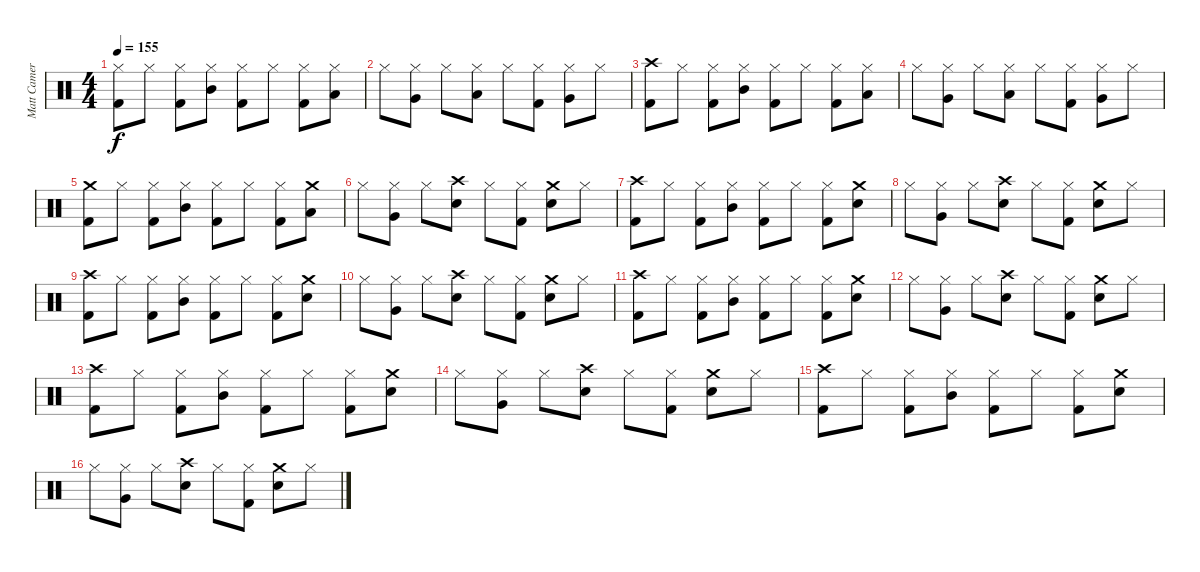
\track ("Matt Cameron" "Matt Camer") {instrument percussion}
\staff {score}
\articulation defaults
\ts (4 4)
\tempo 155
\clef neutral
\ks c
("Hi-Hat (closed)" "Kick (hit) 2").8{dy f} "Hi-Hat (closed)".8 ("Hi-Hat (closed)" "Kick (hit) 2").8 ("Hi-Hat (closed)" "Mid Tom (hit)").8 ("Hi-Hat (closed)" "Kick (hit) 2").8 "Hi-Hat (closed)".8 ("Hi-Hat (closed)" "Kick (hit) 2").8 ("Hi-Hat (closed)" "Low Tom (hit)").8 |
"Hi-Hat (closed)".8 ("Hi-Hat (closed)" "Very Low Tom (hit)").8 "Hi-Hat (closed)".8 ("Hi-Hat (closed)" "Low Floor Tom (hit)").8 "Hi-Hat (closed)".8 ("Hi-Hat (closed)" "Kick (hit) 2").8 ("Hi-Hat (closed)" "Very Low Tom (hit)").8 "Hi-Hat (closed)".8 |
("Crash high (hit)" "Kick (hit) 2").8 "Hi-Hat (closed)".8 ("Hi-Hat (closed)" "Kick (hit) 2").8 ("Hi-Hat (closed)" "Mid Tom (hit)").8 ("Hi-Hat (closed)" "Kick (hit) 2").8 "Hi-Hat (closed)".8 ("Hi-Hat (closed)" "Kick (hit) 2").8 ("Hi-Hat (closed)" "Low Tom (hit)").8 |
"Hi-Hat (closed)".8 ("Hi-Hat (closed)" "Very Low Tom (hit)").8 "Hi-Hat (closed)".8 ("Hi-Hat (closed)" "Low Floor Tom (hit)").8 "Hi-Hat (closed)".8 ("Hi-Hat (closed)" "Kick (hit) 2").8 ("Hi-Hat (closed)" "Very Low Tom (hit)").8 "Hi-Hat (closed)".8 |
("Crash medium (hit)" "Kick (hit) 2").8 "Hi-Hat (closed)".8 ("Hi-Hat (closed)" "Kick (hit) 2").8 ("Hi-Hat (closed)" "Mid Tom (hit)").8 ("Hi-Hat (closed)" "Kick (hit) 2").8 "Hi-Hat (closed)".8 ("Hi-Hat (closed)" "Kick (hit) 2").8 ("Crash medium (hit)" "Low Tom (hit)").8 |
"Hi-Hat (closed)".8 ("Hi-Hat (closed)" "Very Low Tom (hit)").8 "Hi-Hat (closed)".8 ("Crash high (hit)" "Snare (hit) 2").8 "Hi-Hat (closed)".8 ("Hi-Hat (closed)" "Kick (hit) 2").8 ("Crash medium (hit)" "Snare (hit) 2").8 "Hi-Hat (closed)".8 |
("Crash high (hit)" "Kick (hit) 2").8 "Hi-Hat (closed)".8 ("Hi-Hat (closed)" "Kick (hit) 2").8 ("Hi-Hat (closed)" "Mid Tom (hit)").8 ("Hi-Hat (closed)" "Kick (hit) 2").8 "Hi-Hat (closed)".8 ("Hi-Hat (closed)" "Kick (hit) 2").8 ("Crash medium (hit)" "Snare (hit) 2").8 |
"Hi-Hat (closed)".8 ("Hi-Hat (closed)" "Very Low Tom (hit)").8 "Hi-Hat (closed)".8 ("Crash high (hit)" "Snare (hit) 2").8 "Hi-Hat (closed)".8 ("Hi-Hat (closed)" "Kick (hit) 2").8 ("Crash medium (hit)" "Snare (hit) 2").8 "Hi-Hat (closed)".8 |
("Crash high (hit)" "Kick (hit) 2").8 "Hi-Hat (closed)".8 ("Hi-Hat (closed)" "Kick (hit) 2").8 ("Hi-Hat (closed)" "Mid Tom (hit)").8 ("Hi-Hat (closed)" "Kick (hit) 2").8 "Hi-Hat (closed)".8 ("Hi-Hat (closed)" "Kick (hit) 2").8 ("Crash medium (hit)" "Snare (hit) 2").8 |
"Hi-Hat (closed)".8 ("Hi-Hat (closed)" "Very Low Tom (hit)").8 "Hi-Hat (closed)".8 ("Crash high (hit)" "Snare (hit) 2").8 "Hi-Hat (closed)".8 ("Hi-Hat (closed)" "Kick (hit) 2").8 ("Crash medium (hit)" "Snare (hit) 2").8 "Hi-Hat (closed)".8 |
("Crash high (hit)" "Kick (hit) 2").8 "Hi-Hat (closed)".8 ("Hi-Hat (closed)" "Kick (hit) 2").8 ("Hi-Hat (closed)" "Mid Tom (hit)").8 ("Hi-Hat (closed)" "Kick (hit) 2").8 "Hi-Hat (closed)".8 ("Hi-Hat (closed)" "Kick (hit) 2").8 ("Crash medium (hit)" "Snare (hit) 2").8 |
"Hi-Hat (closed)".8 ("Hi-Hat (closed)" "Very Low Tom (hit)").8 "Hi-Hat (closed)".8 ("Crash high (hit)" "Snare (hit) 2").8 "Hi-Hat (closed)".8 ("Hi-Hat (closed)" "Kick (hit) 2").8 ("Crash medium (hit)" "Snare (hit) 2").8 "Hi-Hat (closed)".8 |
("Crash high (hit)" "Kick (hit) 2").8 "Hi-Hat (closed)".8 ("Hi-Hat (closed)" "Kick (hit) 2").8 ("Hi-Hat (closed)" "Mid Tom (hit)").8 ("Hi-Hat (closed)" "Kick (hit) 2").8 "Hi-Hat (closed)".8 ("Hi-Hat (closed)" "Kick (hit) 2").8 ("Crash medium (hit)" "Snare (hit) 2").8 |
"Hi-Hat (closed)".8 ("Hi-Hat (closed)" "Very Low Tom (hit)").8 "Hi-Hat (closed)".8 ("Crash high (hit)" "Snare (hit) 2").8 "Hi-Hat (closed)".8 ("Hi-Hat (closed)" "Kick (hit) 2").8 ("Crash medium (hit)" "Snare (hit) 2").8 "Hi-Hat (closed)".8 |
("Crash high (hit)" "Kick (hit) 2").8 "Hi-Hat (closed)".8 ("Hi-Hat (closed)" "Kick (hit) 2").8 ("Hi-Hat (closed)" "Mid Tom (hit)").8 ("Hi-Hat (closed)" "Kick (hit) 2").8 "Hi-Hat (closed)".8 ("Hi-Hat (closed)" "Kick (hit) 2").8 ("Crash medium (hit)" "Snare (hit) 2").8 |
"Hi-Hat (closed)".8 ("Hi-Hat (closed)" "Very Low Tom (hit)").8 "Hi-Hat (closed)".8 ("Crash high (hit)" "Snare (hit) 2").8 "Hi-Hat (closed)".8 ("Hi-Hat (closed)" "Kick (hit) 2").8 ("Crash medium (hit)" "Snare (hit) 2").8 "Hi-Hat (closed)".8
